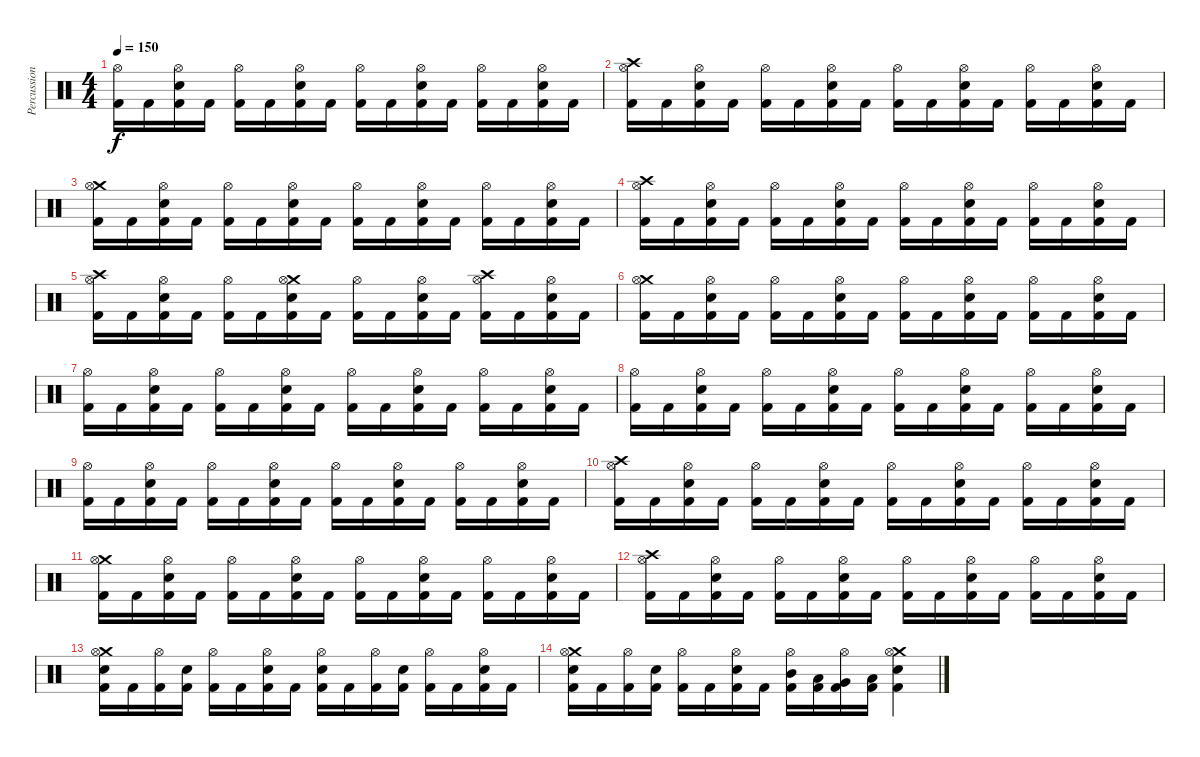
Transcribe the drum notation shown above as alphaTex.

\track ("Percussion" "Percussion") {instrument percussion}
\staff {score}
\articulation defaults
\ts (4 4)
\tempo 150
\clef neutral
\ks c
("Hi-Hat (open)" "Kick (hit) 2").16{dy f} "Kick (hit) 2".16 ("Hi-Hat (open)" "Electric Snare (hit)" "Kick (hit) 2").16 "Kick (hit) 2".16 ("Hi-Hat (open)" "Kick (hit) 2").16 "Kick (hit) 2".16 ("Hi-Hat (open)" "Electric Snare (hit)" "Kick (hit) 2").16 "Kick (hit) 2".16 ("Hi-Hat (open)" "Kick (hit) 2").16 "Kick (hit) 2".16 ("Hi-Hat (open)" "Electric Snare (hit)" "Kick (hit) 2").16 "Kick (hit) 2".16 ("Hi-Hat (open)" "Kick (hit) 2").16 "Kick (hit) 2".16 ("Hi-Hat (open)" "Electric Snare (hit)" "Kick (hit) 2").16 "Kick (hit) 2".16 |
("Crash high (hit)" "Hi-Hat (open)" "Kick (hit) 2").16 "Kick (hit) 2".16 ("Hi-Hat (open)" "Electric Snare (hit)" "Kick (hit) 2").16 "Kick (hit) 2".16 ("Hi-Hat (open)" "Kick (hit) 2").16 "Kick (hit) 2".16 ("Hi-Hat (open)" "Electric Snare (hit)" "Kick (hit) 2").16 "Kick (hit) 2".16 ("Hi-Hat (open)" "Kick (hit) 2").16 "Kick (hit) 2".16 ("Hi-Hat (open)" "Electric Snare (hit)" "Kick (hit) 2").16 "Kick (hit) 2".16 ("Hi-Hat (open)" "Kick (hit) 2").16 "Kick (hit) 2".16 ("Hi-Hat (open)" "Electric Snare (hit)" "Kick (hit) 2").16 "Kick (hit) 2".16 |
("Crash medium (hit)" "Hi-Hat (open)" "Kick (hit) 2").16 "Kick (hit) 2".16 ("Hi-Hat (open)" "Electric Snare (hit)" "Kick (hit) 2").16 "Kick (hit) 2".16 ("Hi-Hat (open)" "Kick (hit) 2").16 "Kick (hit) 2".16 ("Hi-Hat (open)" "Electric Snare (hit)" "Kick (hit) 2").16 "Kick (hit) 2".16 ("Hi-Hat (open)" "Kick (hit) 2").16 "Kick (hit) 2".16 ("Hi-Hat (open)" "Electric Snare (hit)" "Kick (hit) 2").16 "Kick (hit) 2".16 ("Hi-Hat (open)" "Kick (hit) 2").16 "Kick (hit) 2".16 ("Hi-Hat (open)" "Electric Snare (hit)" "Kick (hit) 2").16 "Kick (hit) 2".16 |
("Crash high (hit)" "Hi-Hat (open)" "Kick (hit) 2").16 "Kick (hit) 2".16 ("Hi-Hat (open)" "Electric Snare (hit)" "Kick (hit) 2").16 "Kick (hit) 2".16 ("Hi-Hat (open)" "Kick (hit) 2").16 "Kick (hit) 2".16 ("Hi-Hat (open)" "Electric Snare (hit)" "Kick (hit) 2").16 "Kick (hit) 2".16 ("Hi-Hat (open)" "Kick (hit) 2").16 "Kick (hit) 2".16 ("Hi-Hat (open)" "Electric Snare (hit)" "Kick (hit) 2").16 "Kick (hit) 2".16 ("Hi-Hat (open)" "Kick (hit) 2").16 "Kick (hit) 2".16 ("Hi-Hat (open)" "Electric Snare (hit)" "Kick (hit) 2").16 "Kick (hit) 2".16 |
("Crash high (hit)" "Hi-Hat (open)" "Kick (hit) 2").16 "Kick (hit) 2".16 ("Hi-Hat (open)" "Electric Snare (hit)" "Kick (hit) 2").16 "Kick (hit) 2".16 ("Hi-Hat (open)" "Kick (hit) 2").16 "Kick (hit) 2".16 ("Crash medium (hit)" "Hi-Hat (open)" "Electric Snare (hit)" "Kick (hit) 2").16 "Kick (hit) 2".16 ("Hi-Hat (open)" "Kick (hit) 2").16 "Kick (hit) 2".16 ("Hi-Hat (open)" "Electric Snare (hit)" "Kick (hit) 2").16 "Kick (hit) 2".16 ("Crash high (hit)" "Hi-Hat (open)" "Kick (hit) 2").16 "Kick (hit) 2".16 ("Hi-Hat (open)" "Electric Snare (hit)" "Kick (hit) 2").16 "Kick (hit) 2".16 |
("Crash medium (hit)" "Hi-Hat (open)" "Kick (hit) 2").16 "Kick (hit) 2".16 ("Hi-Hat (open)" "Electric Snare (hit)" "Kick (hit) 2").16 "Kick (hit) 2".16 ("Hi-Hat (open)" "Kick (hit) 2").16 "Kick (hit) 2".16 ("Hi-Hat (open)" "Electric Snare (hit)" "Kick (hit) 2").16 "Kick (hit) 2".16 ("Hi-Hat (open)" "Kick (hit) 2").16 "Kick (hit) 2".16 ("Hi-Hat (open)" "Electric Snare (hit)" "Kick (hit) 2").16 "Kick (hit) 2".16 ("Hi-Hat (open)" "Kick (hit) 2").16 "Kick (hit) 2".16 ("Hi-Hat (open)" "Electric Snare (hit)" "Kick (hit) 2").16 "Kick (hit) 2".16 |
("Hi-Hat (open)" "Kick (hit) 2").16 "Kick (hit) 2".16 ("Hi-Hat (open)" "Electric Snare (hit)" "Kick (hit) 2").16 "Kick (hit) 2".16 ("Hi-Hat (open)" "Kick (hit) 2").16 "Kick (hit) 2".16 ("Hi-Hat (open)" "Electric Snare (hit)" "Kick (hit) 2").16 "Kick (hit) 2".16 ("Hi-Hat (open)" "Kick (hit) 2").16 "Kick (hit) 2".16 ("Hi-Hat (open)" "Electric Snare (hit)" "Kick (hit) 2").16 "Kick (hit) 2".16 ("Hi-Hat (open)" "Kick (hit) 2").16 "Kick (hit) 2".16 ("Hi-Hat (open)" "Electric Snare (hit)" "Kick (hit) 2").16 "Kick (hit) 2".16 |
("Hi-Hat (open)" "Kick (hit) 2").16 "Kick (hit) 2".16 ("Hi-Hat (open)" "Electric Snare (hit)" "Kick (hit) 2").16 "Kick (hit) 2".16 ("Hi-Hat (open)" "Kick (hit) 2").16 "Kick (hit) 2".16 ("Hi-Hat (open)" "Electric Snare (hit)" "Kick (hit) 2").16 "Kick (hit) 2".16 ("Hi-Hat (open)" "Kick (hit) 2").16 "Kick (hit) 2".16 ("Hi-Hat (open)" "Electric Snare (hit)" "Kick (hit) 2").16 "Kick (hit) 2".16 ("Hi-Hat (open)" "Kick (hit) 2").16 "Kick (hit) 2".16 ("Hi-Hat (open)" "Electric Snare (hit)" "Kick (hit) 2").16 "Kick (hit) 2".16 |
("Hi-Hat (open)" "Kick (hit) 2").16 "Kick (hit) 2".16 ("Hi-Hat (open)" "Electric Snare (hit)" "Kick (hit) 2").16 "Kick (hit) 2".16 ("Hi-Hat (open)" "Kick (hit) 2").16 "Kick (hit) 2".16 ("Hi-Hat (open)" "Electric Snare (hit)" "Kick (hit) 2").16 "Kick (hit) 2".16 ("Hi-Hat (open)" "Kick (hit) 2").16 "Kick (hit) 2".16 ("Hi-Hat (open)" "Electric Snare (hit)" "Kick (hit) 2").16 "Kick (hit) 2".16 ("Hi-Hat (open)" "Kick (hit) 2").16 "Kick (hit) 2".16 ("Hi-Hat (open)" "Electric Snare (hit)" "Kick (hit) 2").16 "Kick (hit) 2".16 |
("Crash high (hit)" "Hi-Hat (open)" "Kick (hit) 2").16 "Kick (hit) 2".16 ("Hi-Hat (open)" "Electric Snare (hit)" "Kick (hit) 2").16 "Kick (hit) 2".16 ("Hi-Hat (open)" "Kick (hit) 2").16 "Kick (hit) 2".16 ("Hi-Hat (open)" "Electric Snare (hit)" "Kick (hit) 2").16 "Kick (hit) 2".16 ("Hi-Hat (open)" "Kick (hit) 2").16 "Kick (hit) 2".16 ("Hi-Hat (open)" "Electric Snare (hit)" "Kick (hit) 2").16 "Kick (hit) 2".16 ("Hi-Hat (open)" "Kick (hit) 2").16 "Kick (hit) 2".16 ("Hi-Hat (open)" "Electric Snare (hit)" "Kick (hit) 2").16 "Kick (hit) 2".16 |
("Crash medium (hit)" "Hi-Hat (open)" "Kick (hit) 2").16 "Kick (hit) 2".16 ("Hi-Hat (open)" "Electric Snare (hit)" "Kick (hit) 2").16 "Kick (hit) 2".16 ("Hi-Hat (open)" "Kick (hit) 2").16 "Kick (hit) 2".16 ("Hi-Hat (open)" "Electric Snare (hit)" "Kick (hit) 2").16 "Kick (hit) 2".16 ("Hi-Hat (open)" "Kick (hit) 2").16 "Kick (hit) 2".16 ("Hi-Hat (open)" "Electric Snare (hit)" "Kick (hit) 2").16 "Kick (hit) 2".16 ("Hi-Hat (open)" "Kick (hit) 2").16 "Kick (hit) 2".16 ("Hi-Hat (open)" "Electric Snare (hit)" "Kick (hit) 2").16 "Kick (hit) 2".16 |
("Crash high (hit)" "Hi-Hat (open)" "Kick (hit) 2").16 "Kick (hit) 2".16 ("Hi-Hat (open)" "Electric Snare (hit)" "Kick (hit) 2").16 "Kick (hit) 2".16 ("Hi-Hat (open)" "Kick (hit) 2").16 "Kick (hit) 2".16 ("Hi-Hat (open)" "Electric Snare (hit)" "Kick (hit) 2").16 "Kick (hit) 2".16 ("Hi-Hat (open)" "Kick (hit) 2").16 "Kick (hit) 2".16 ("Hi-Hat (open)" "Electric Snare (hit)" "Kick (hit) 2").16 "Kick (hit) 2".16 ("Hi-Hat (open)" "Kick (hit) 2").16 "Kick (hit) 2".16 ("Hi-Hat (open)" "Electric Snare (hit)" "Kick (hit) 2").16 "Kick (hit) 2".16 |
("Crash medium (hit)" "Hi-Hat (open)" "Electric Snare (hit)" "Kick (hit) 2").16 "Kick (hit) 2".16 ("Hi-Hat (open)" "Kick (hit) 2").16 ("Electric Snare (hit)" "Kick (hit) 2").16 ("Hi-Hat (open)" "Kick (hit) 2").16 "Kick (hit) 2".16 ("Hi-Hat (open)" "Electric Snare (hit)" "Kick (hit) 2").16 "Kick (hit) 2".16 ("Hi-Hat (open)" "Electric Snare (hit)" "Kick (hit) 2").16 "Kick (hit) 2".16 ("Hi-Hat (open)" "Kick (hit) 2").16 ("Electric Snare (hit)" "Kick (hit) 2").16 ("Hi-Hat (open)" "Kick (hit) 2").16 "Kick (hit) 2".16 ("Hi-Hat (open)" "Electric Snare (hit)" "Kick (hit) 2").16 "Kick (hit) 2".16 |
("Crash medium (hit)" "Hi-Hat (open)" "Electric Snare (hit)" "Kick (hit) 2").16 "Kick (hit) 2".16 ("Hi-Hat (open)" "Kick (hit) 2").16 ("Electric Snare (hit)" "Kick (hit) 2").16 ("Hi-Hat (open)" "Kick (hit) 2").16 "Kick (hit) 2".16 ("Hi-Hat (open)" "Electric Snare (hit)" "Kick (hit) 2").16 "Kick (hit) 2".16 ("Hi-Hat (open)" "Mid Tom (hit)" "Kick (hit) 2").16 ("Low Tom (hit)" "Kick (hit) 2").16 ("Hi-Hat (open)" "Very Low Tom (hit)" "Kick (hit) 2").16 ("Low Floor Tom (hit)" "Kick (hit) 2").16 ("Crash medium (hit)" "Hi-Hat (open)" "Electric Snare (hit)" "Kick (hit) 2").4
